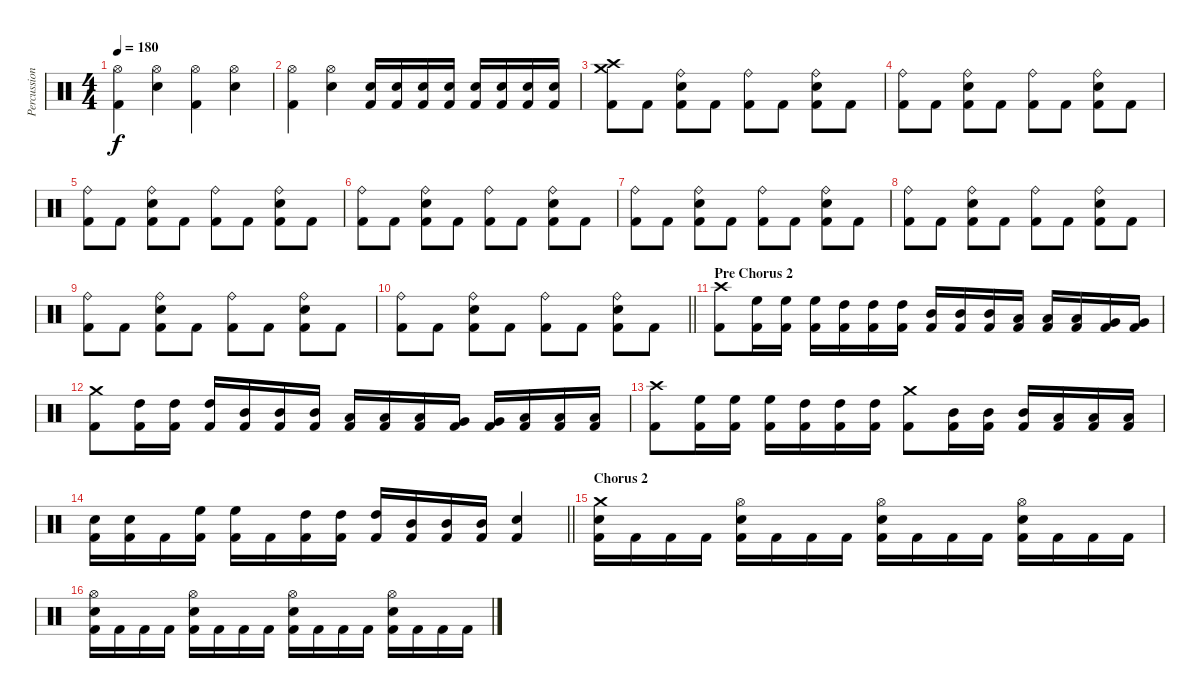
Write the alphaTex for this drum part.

\track ("Percussion" "Percussion") {instrument percussion}
\staff {score}
\articulation defaults
\ts (4 4)
\tempo 180
\clef neutral
\ks c
("Hi-Hat (open)" "Kick (hit) 2").4{dy f} ("Hi-Hat (open)" "Electric Snare (hit)").4 ("Hi-Hat (open)" "Kick (hit) 2").4 ("Hi-Hat (open)" "Electric Snare (hit)").4 |
("Hi-Hat (open)" "Kick (hit) 2").4 ("Hi-Hat (open)" "Electric Snare (hit)").4 ("Electric Snare (hit)" "Kick (hit) 2").16 ("Electric Snare (hit)" "Kick (hit) 2").16 ("Electric Snare (hit)" "Kick (hit) 2").16 ("Electric Snare (hit)" "Kick (hit) 2").16 ("Electric Snare (hit)" "Kick (hit) 2").16 ("Electric Snare (hit)" "Kick (hit) 2").16 ("Electric Snare (hit)" "Kick (hit) 2").16 ("Electric Snare (hit)" "Kick (hit) 2").16 |
("Crash medium (hit)" "Crash high (hit)" "Kick (hit) 2").8 "Kick (hit) 2".8 ("Ride (bell)" "Electric Snare (hit)" "Kick (hit) 2").8 "Kick (hit) 2".8 ("Ride (bell)" "Kick (hit) 2").8 "Kick (hit) 2".8 ("Ride (bell)" "Electric Snare (hit)" "Kick (hit) 2").8 "Kick (hit) 2".8 |
("Ride (bell)" "Kick (hit) 2").8 "Kick (hit) 2".8 ("Ride (bell)" "Electric Snare (hit)" "Kick (hit) 2").8 "Kick (hit) 2".8 ("Ride (bell)" "Kick (hit) 2").8 "Kick (hit) 2".8 ("Ride (bell)" "Electric Snare (hit)" "Kick (hit) 2").8 "Kick (hit) 2".8 |
("Ride (bell)" "Kick (hit) 2").8 "Kick (hit) 2".8 ("Ride (bell)" "Electric Snare (hit)" "Kick (hit) 2").8 "Kick (hit) 2".8 ("Ride (bell)" "Kick (hit) 2").8 "Kick (hit) 2".8 ("Ride (bell)" "Electric Snare (hit)" "Kick (hit) 2").8 "Kick (hit) 2".8 |
("Ride (bell)" "Kick (hit) 2").8 "Kick (hit) 2".8 ("Ride (bell)" "Electric Snare (hit)" "Kick (hit) 2").8 "Kick (hit) 2".8 ("Ride (bell)" "Kick (hit) 2").8 "Kick (hit) 2".8 ("Ride (bell)" "Electric Snare (hit)" "Kick (hit) 2").8 "Kick (hit) 2".8 |
("Ride (bell)" "Kick (hit) 2").8 "Kick (hit) 2".8 ("Ride (bell)" "Electric Snare (hit)" "Kick (hit) 2").8 "Kick (hit) 2".8 ("Ride (bell)" "Kick (hit) 2").8 "Kick (hit) 2".8 ("Ride (bell)" "Electric Snare (hit)" "Kick (hit) 2").8 "Kick (hit) 2".8 |
("Ride (bell)" "Kick (hit) 2").8 "Kick (hit) 2".8 ("Ride (bell)" "Electric Snare (hit)" "Kick (hit) 2").8 "Kick (hit) 2".8 ("Ride (bell)" "Kick (hit) 2").8 "Kick (hit) 2".8 ("Ride (bell)" "Electric Snare (hit)" "Kick (hit) 2").8 "Kick (hit) 2".8 |
("Ride (bell)" "Kick (hit) 2").8 "Kick (hit) 2".8 ("Ride (bell)" "Electric Snare (hit)" "Kick (hit) 2").8 "Kick (hit) 2".8 ("Ride (bell)" "Kick (hit) 2").8 "Kick (hit) 2".8 ("Ride (bell)" "Electric Snare (hit)" "Kick (hit) 2").8 "Kick (hit) 2".8 |
\barLineRight lightlight
("Ride (bell)" "Kick (hit) 2").8 "Kick (hit) 2".8 ("Ride (bell)" "Electric Snare (hit)" "Kick (hit) 2").8 "Kick (hit) 2".8 ("Ride (bell)" "Kick (hit) 2").8 "Kick (hit) 2".8 ("Ride (bell)" "Electric Snare (hit)" "Kick (hit) 2").8 "Kick (hit) 2".8 |
\section ("" "Pre Chorus 2")
("Crash high (hit)" "Kick (hit) 2").8 ("High Floor Tom (hit)" "Kick (hit) 2").16 ("High Floor Tom (hit)" "Kick (hit) 2").16 ("High Floor Tom (hit)" "Kick (hit) 2").16 ("High Tom (hit)" "Kick (hit) 2").16 ("High Tom (hit)" "Kick (hit) 2").16 ("High Tom (hit)" "Kick (hit) 2").16 ("Mid Tom (hit)" "Kick (hit) 2").16 ("Mid Tom (hit)" "Kick (hit) 2").16 ("Mid Tom (hit)" "Kick (hit) 2").16 ("Low Tom (hit)" "Kick (hit) 2").16 ("Low Tom (hit)" "Kick (hit) 2").16 ("Low Tom (hit)" "Kick (hit) 2").16 ("Very Low Tom (hit)" "Kick (hit) 2").16 ("Very Low Tom (hit)" "Kick (hit) 2").16 |
("Crash medium (hit)" "Kick (hit) 2").8 ("High Tom (hit)" "Kick (hit) 2").16 ("High Tom (hit)" "Kick (hit) 2").16 ("High Tom (hit)" "Kick (hit) 2").16 ("Mid Tom (hit)" "Kick (hit) 2").16 ("Mid Tom (hit)" "Kick (hit) 2").16 ("Mid Tom (hit)" "Kick (hit) 2").16 ("Low Tom (hit)" "Kick (hit) 2").16 ("Low Tom (hit)" "Kick (hit) 2").16 ("Low Tom (hit)" "Kick (hit) 2").16 ("Very Low Tom (hit)" "Kick (hit) 2").16 ("Very Low Tom (hit)" "Kick (hit) 2").16 ("Low Floor Tom (hit)" "Kick (hit) 2").16 ("Low Floor Tom (hit)" "Kick (hit) 2").16 ("Low Floor Tom (hit)" "Kick (hit) 2").16 |
("Crash high (hit)" "Kick (hit) 2").8 ("High Floor Tom (hit)" "Kick (hit) 2").16 ("High Floor Tom (hit)" "Kick (hit) 2").16 ("High Floor Tom (hit)" "Kick (hit) 2").16 ("High Tom (hit)" "Kick (hit) 2").16 ("High Tom (hit)" "Kick (hit) 2").16 ("High Tom (hit)" "Kick (hit) 2").16 ("Crash medium (hit)" "Kick (hit) 2").8 ("Mid Tom (hit)" "Kick (hit) 2").16 ("Mid Tom (hit)" "Kick (hit) 2").16 ("Mid Tom (hit)" "Kick (hit) 2").16 ("Low Tom (hit)" "Kick (hit) 2").16 ("Low Tom (hit)" "Kick (hit) 2").16 ("Low Tom (hit)" "Kick (hit) 2").16 |
\barLineRight lightlight
("Electric Snare (hit)" "Kick (hit) 2").16 ("Electric Snare (hit)" "Kick (hit) 2").16 "Kick (hit) 2".16 ("High Floor Tom (hit)" "Kick (hit) 2").16 ("High Floor Tom (hit)" "Kick (hit) 2").16 "Kick (hit) 2".16 ("High Tom (hit)" "Kick (hit) 2").16 ("High Tom (hit)" "Kick (hit) 2").16 ("High Tom (hit)" "Kick (hit) 2").16 ("Mid Tom (hit)" "Kick (hit) 2").16 ("Mid Tom (hit)" "Kick (hit) 2").16 ("Mid Tom (hit)" "Kick (hit) 2").16 ("Electric Snare (hit)" "Kick (hit) 2").4 |
\section ("" "Chorus 2")
("Crash medium (hit)" "Electric Snare (hit)" "Kick (hit) 2").16 "Kick (hit) 2".16 "Kick (hit) 2".16 "Kick (hit) 2".16 ("Hi-Hat (open)" "Electric Snare (hit)" "Kick (hit) 2").16 "Kick (hit) 2".16 "Kick (hit) 2".16 "Kick (hit) 2".16 ("Hi-Hat (open)" "Electric Snare (hit)" "Kick (hit) 2").16 "Kick (hit) 2".16 "Kick (hit) 2".16 "Kick (hit) 2".16 ("Hi-Hat (open)" "Electric Snare (hit)" "Kick (hit) 2").16 "Kick (hit) 2".16 "Kick (hit) 2".16 "Kick (hit) 2".16 |
("Hi-Hat (open)" "Electric Snare (hit)" "Kick (hit) 2").16 "Kick (hit) 2".16 "Kick (hit) 2".16 "Kick (hit) 2".16 ("Hi-Hat (open)" "Electric Snare (hit)" "Kick (hit) 2").16 "Kick (hit) 2".16 "Kick (hit) 2".16 "Kick (hit) 2".16 ("Hi-Hat (open)" "Electric Snare (hit)" "Kick (hit) 2").16 "Kick (hit) 2".16 "Kick (hit) 2".16 "Kick (hit) 2".16 ("Hi-Hat (open)" "Electric Snare (hit)" "Kick (hit) 2").16 "Kick (hit) 2".16 "Kick (hit) 2".16 "Kick (hit) 2".16
